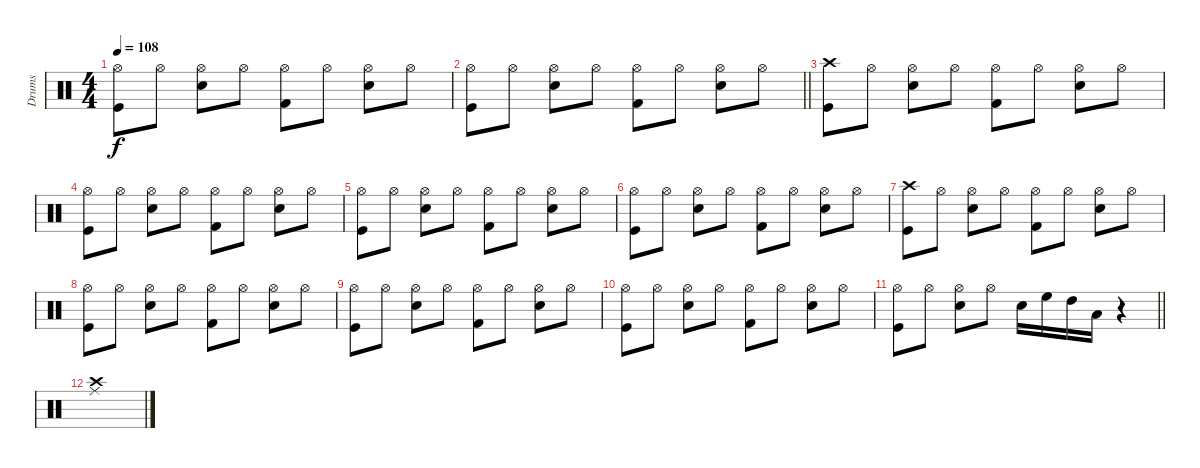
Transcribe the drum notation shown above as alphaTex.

\track ("Drums" "Drums") {instrument percussion}
\staff {score}
\articulation defaults
\ts (4 4)
\tempo 108
\clef neutral
\ks c
("Hi-Hat (open)" "Kick (hit)").8{dy f} "Hi-Hat (open)".8 ("Hi-Hat (open)" "Snare (hit) 2").8 "Hi-Hat (open)".8 ("Hi-Hat (open)" "Kick (hit) 2").8 "Hi-Hat (open)".8 ("Hi-Hat (open)" "Snare (hit) 2").8 "Hi-Hat (open)".8 |
\barLineRight lightlight
("Hi-Hat (open)" "Kick (hit)").8 "Hi-Hat (open)".8 ("Hi-Hat (open)" "Snare (hit) 2").8 "Hi-Hat (open)".8 ("Hi-Hat (open)" "Kick (hit) 2").8 "Hi-Hat (open)".8 ("Hi-Hat (open)" "Snare (hit) 2").8 "Hi-Hat (open)".8 |
("Crash high (hit)" "Kick (hit)").8 "Hi-Hat (open)".8 ("Hi-Hat (open)" "Snare (hit) 2").8 "Hi-Hat (open)".8 ("Hi-Hat (open)" "Kick (hit) 2").8 "Hi-Hat (open)".8 ("Hi-Hat (open)" "Snare (hit) 2").8 "Hi-Hat (open)".8 |
("Hi-Hat (open)" "Kick (hit)").8 "Hi-Hat (open)".8 ("Hi-Hat (open)" "Snare (hit) 2").8 "Hi-Hat (open)".8 ("Hi-Hat (open)" "Kick (hit) 2").8 "Hi-Hat (open)".8 ("Hi-Hat (open)" "Snare (hit) 2").8 "Hi-Hat (open)".8 |
("Hi-Hat (open)" "Kick (hit)").8 "Hi-Hat (open)".8 ("Hi-Hat (open)" "Snare (hit) 2").8 "Hi-Hat (open)".8 ("Hi-Hat (open)" "Kick (hit) 2").8 "Hi-Hat (open)".8 ("Hi-Hat (open)" "Snare (hit) 2").8 "Hi-Hat (open)".8 |
("Hi-Hat (open)" "Kick (hit)").8 "Hi-Hat (open)".8 ("Hi-Hat (open)" "Snare (hit) 2").8 "Hi-Hat (open)".8 ("Hi-Hat (open)" "Kick (hit) 2").8 "Hi-Hat (open)".8 ("Hi-Hat (open)" "Snare (hit) 2").8 "Hi-Hat (open)".8 |
("Crash high (hit)" "Kick (hit)").8 "Hi-Hat (open)".8 ("Hi-Hat (open)" "Snare (hit) 2").8 "Hi-Hat (open)".8 ("Hi-Hat (open)" "Kick (hit) 2").8 "Hi-Hat (open)".8 ("Hi-Hat (open)" "Snare (hit) 2").8 "Hi-Hat (open)".8 |
("Hi-Hat (open)" "Kick (hit)").8 "Hi-Hat (open)".8 ("Hi-Hat (open)" "Snare (hit) 2").8 "Hi-Hat (open)".8 ("Hi-Hat (open)" "Kick (hit) 2").8 "Hi-Hat (open)".8 ("Hi-Hat (open)" "Snare (hit) 2").8 "Hi-Hat (open)".8 |
("Hi-Hat (open)" "Kick (hit)").8 "Hi-Hat (open)".8 ("Hi-Hat (open)" "Snare (hit) 2").8 "Hi-Hat (open)".8 ("Hi-Hat (open)" "Kick (hit) 2").8 "Hi-Hat (open)".8 ("Hi-Hat (open)" "Snare (hit) 2").8 "Hi-Hat (open)".8 |
("Hi-Hat (open)" "Kick (hit)").8 "Hi-Hat (open)".8 ("Hi-Hat (open)" "Snare (hit) 2").8 "Hi-Hat (open)".8 ("Hi-Hat (open)" "Kick (hit) 2").8 "Hi-Hat (open)".8 ("Hi-Hat (open)" "Snare (hit) 2").8 "Hi-Hat (open)".8 |
\barLineRight lightlight
("Kick (hit)" "Hi-Hat (open)").8 "Hi-Hat (open)".8 ("Snare (hit) 2" "Hi-Hat (open)").8 "Hi-Hat (open)".8 "Snare (hit) 2".16 "High Floor Tom (hit)".16 "High Tom (hit)".16 "Low Floor Tom (hit)".16 r.4 |
("Crash high (hit)" "Ride (middle)").1
